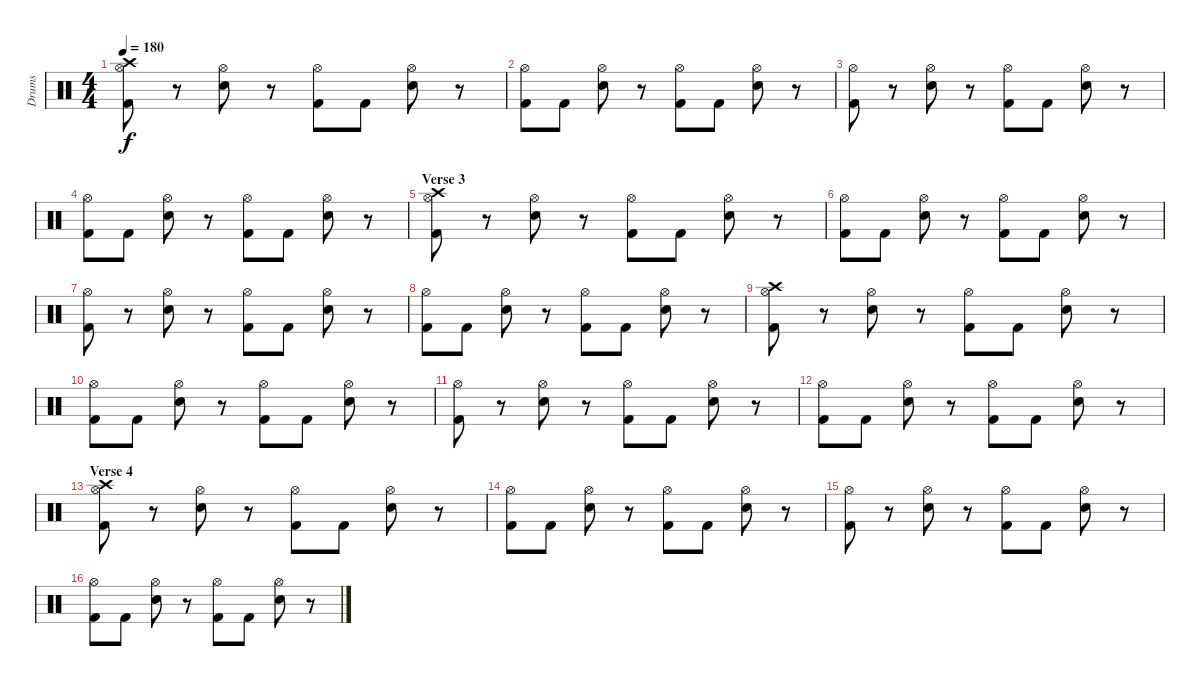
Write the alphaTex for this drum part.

\track ("Drums" "Drums") {instrument percussion}
\staff {score}
\articulation defaults
\ts (4 4)
\tempo 180
\clef neutral
\ks c
("Crash high (hit)" "Hi-Hat (open)" "Kick (hit) 2").8{dy f} r.8 ("Hi-Hat (open)" "Snare (hit) 2").8 r.8 ("Hi-Hat (open)" "Kick (hit) 2").8 "Kick (hit) 2".8 ("Hi-Hat (open)" "Snare (hit) 2").8 r.8 |
("Hi-Hat (open)" "Kick (hit) 2").8 "Kick (hit) 2".8 ("Hi-Hat (open)" "Snare (hit) 2").8 r.8 ("Hi-Hat (open)" "Kick (hit) 2").8 "Kick (hit) 2".8 ("Hi-Hat (open)" "Snare (hit) 2").8 r.8 |
("Hi-Hat (open)" "Kick (hit) 2").8 r.8 ("Hi-Hat (open)" "Snare (hit) 2").8 r.8 ("Hi-Hat (open)" "Kick (hit) 2").8 "Kick (hit) 2".8 ("Hi-Hat (open)" "Snare (hit) 2").8 r.8 |
("Hi-Hat (open)" "Kick (hit) 2").8 "Kick (hit) 2".8 ("Hi-Hat (open)" "Snare (hit) 2").8 r.8 ("Hi-Hat (open)" "Kick (hit) 2").8 "Kick (hit) 2".8 ("Hi-Hat (open)" "Snare (hit) 2").8 r.8 |
\section ("" "Verse 3")
("Crash high (hit)" "Hi-Hat (open)" "Kick (hit) 2").8 r.8 ("Hi-Hat (open)" "Snare (hit) 2").8 r.8 ("Hi-Hat (open)" "Kick (hit) 2").8 "Kick (hit) 2".8 ("Hi-Hat (open)" "Snare (hit) 2").8 r.8 |
("Hi-Hat (open)" "Kick (hit) 2").8 "Kick (hit) 2".8 ("Hi-Hat (open)" "Snare (hit) 2").8 r.8 ("Hi-Hat (open)" "Kick (hit) 2").8 "Kick (hit) 2".8 ("Hi-Hat (open)" "Snare (hit) 2").8 r.8 |
("Hi-Hat (open)" "Kick (hit) 2").8 r.8 ("Hi-Hat (open)" "Snare (hit) 2").8 r.8 ("Hi-Hat (open)" "Kick (hit) 2").8 "Kick (hit) 2".8 ("Hi-Hat (open)" "Snare (hit) 2").8 r.8 |
("Hi-Hat (open)" "Kick (hit) 2").8 "Kick (hit) 2".8 ("Hi-Hat (open)" "Snare (hit) 2").8 r.8 ("Hi-Hat (open)" "Kick (hit) 2").8 "Kick (hit) 2".8 ("Hi-Hat (open)" "Snare (hit) 2").8 r.8 |
("Crash high (hit)" "Hi-Hat (open)" "Kick (hit) 2").8 r.8 ("Hi-Hat (open)" "Snare (hit) 2").8 r.8 ("Hi-Hat (open)" "Kick (hit) 2").8 "Kick (hit) 2".8 ("Hi-Hat (open)" "Snare (hit) 2").8 r.8 |
("Hi-Hat (open)" "Kick (hit) 2").8 "Kick (hit) 2".8 ("Hi-Hat (open)" "Snare (hit) 2").8 r.8 ("Hi-Hat (open)" "Kick (hit) 2").8 "Kick (hit) 2".8 ("Hi-Hat (open)" "Snare (hit) 2").8 r.8 |
("Hi-Hat (open)" "Kick (hit) 2").8 r.8 ("Hi-Hat (open)" "Snare (hit) 2").8 r.8 ("Hi-Hat (open)" "Kick (hit) 2").8 "Kick (hit) 2".8 ("Hi-Hat (open)" "Snare (hit) 2").8 r.8 |
("Hi-Hat (open)" "Kick (hit) 2").8 "Kick (hit) 2".8 ("Hi-Hat (open)" "Snare (hit) 2").8 r.8 ("Hi-Hat (open)" "Kick (hit) 2").8 "Kick (hit) 2".8 ("Hi-Hat (open)" "Snare (hit) 2").8 r.8 |
\section ("" "Verse 4")
("Crash high (hit)" "Hi-Hat (open)" "Kick (hit) 2").8 r.8 ("Hi-Hat (open)" "Snare (hit) 2").8 r.8 ("Hi-Hat (open)" "Kick (hit) 2").8 "Kick (hit) 2".8 ("Hi-Hat (open)" "Snare (hit) 2").8 r.8 |
("Hi-Hat (open)" "Kick (hit) 2").8 "Kick (hit) 2".8 ("Hi-Hat (open)" "Snare (hit) 2").8 r.8 ("Hi-Hat (open)" "Kick (hit) 2").8 "Kick (hit) 2".8 ("Hi-Hat (open)" "Snare (hit) 2").8 r.8 |
("Hi-Hat (open)" "Kick (hit) 2").8 r.8 ("Hi-Hat (open)" "Snare (hit) 2").8 r.8 ("Hi-Hat (open)" "Kick (hit) 2").8 "Kick (hit) 2".8 ("Hi-Hat (open)" "Snare (hit) 2").8 r.8 |
("Hi-Hat (open)" "Kick (hit) 2").8 "Kick (hit) 2".8 ("Hi-Hat (open)" "Snare (hit) 2").8 r.8 ("Hi-Hat (open)" "Kick (hit) 2").8 "Kick (hit) 2".8 ("Hi-Hat (open)" "Snare (hit) 2").8 r.8
